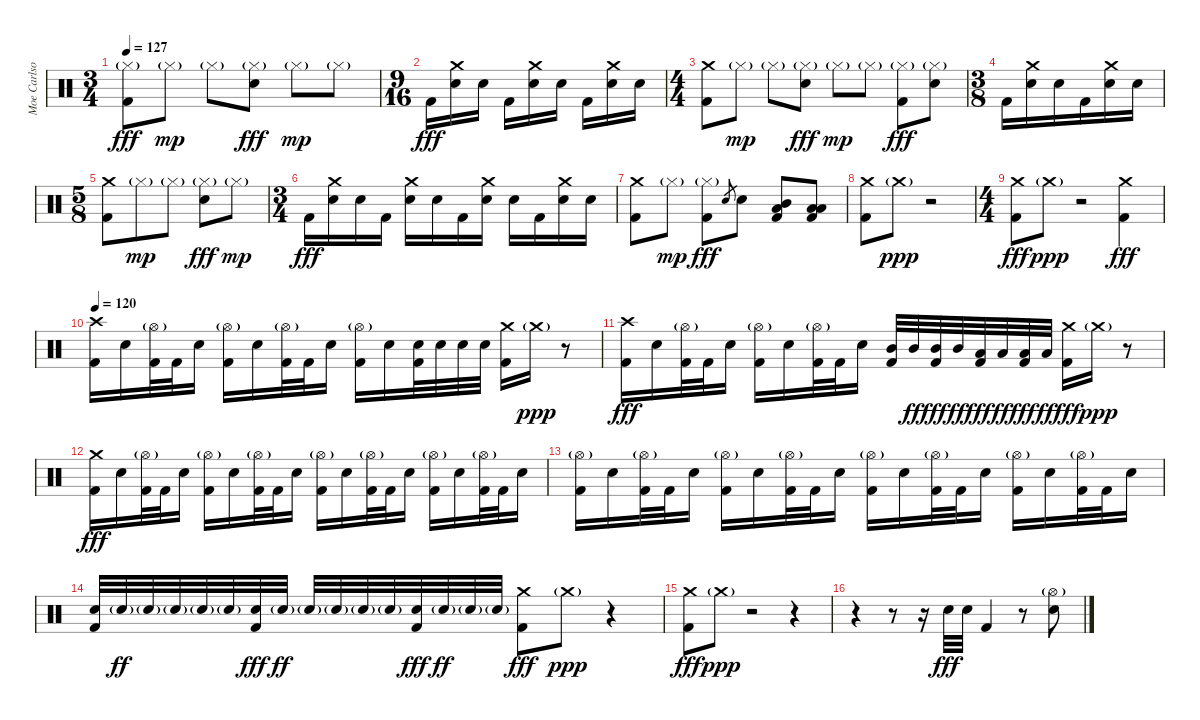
\track ("Moe Carlson" "Moe Carlso") {instrument percussion}
\staff {score}
\articulation defaults
\ts (3 4)
\tempo 127
\clef neutral
\ks c
("Hi-Hat (closed)"{g} "Kick (hit) 2").8{dy fff} "Hi-Hat (closed)"{g}.8{dy mp} "Hi-Hat (closed)"{g}.8 ("Hi-Hat (closed)"{g} "Electric Snare (hit)").8{dy fff} "Hi-Hat (closed)"{g}.8{dy mp} "Hi-Hat (closed)"{g}.8 |
\ts (9 16)
"Kick (hit) 2".16{dy fff} ("Crash medium (hit)" "Electric Snare (hit)").16 "Electric Snare (hit)".16 "Kick (hit) 2".16 ("Crash medium (hit)" "Electric Snare (hit)").16 "Electric Snare (hit)".16 "Kick (hit) 2".16 ("Crash medium (hit)" "Electric Snare (hit)").16 "Electric Snare (hit)".16 |
\ts (4 4)
("Crash medium (hit)" "Kick (hit) 2").8 "Hi-Hat (closed)"{g}.8{dy mp} "Hi-Hat (closed)"{g}.8 ("Hi-Hat (closed)"{g} "Electric Snare (hit)").8{dy fff} "Hi-Hat (closed)"{g}.8{dy mp} "Hi-Hat (closed)"{g}.8 ("Hi-Hat (closed)"{g} "Kick (hit) 2").8{dy fff} ("Hi-Hat (closed)"{g} "Electric Snare (hit)").8 |
\ts (3 8)
"Kick (hit) 2".16 ("Crash medium (hit)" "Electric Snare (hit)").16 "Electric Snare (hit)".16 "Kick (hit) 2".16 ("Crash medium (hit)" "Electric Snare (hit)").16 "Electric Snare (hit)".16 |
\ts (5 8)
("Crash medium (hit)" "Kick (hit) 2").8 "Hi-Hat (closed)"{g}.8{dy mp} "Hi-Hat (closed)"{g}.8 ("Hi-Hat (closed)"{g} "Electric Snare (hit)").8{dy fff} "Hi-Hat (closed)"{g}.8{dy mp} |
\ts (3 4)
"Kick (hit) 2".16{dy fff} ("Crash medium (hit)" "Electric Snare (hit)").16 "Electric Snare (hit)".16 "Kick (hit) 2".16 ("Crash medium (hit)" "Electric Snare (hit)").16 "Electric Snare (hit)".16 "Kick (hit) 2".16 ("Crash medium (hit)" "Electric Snare (hit)").16 "Electric Snare (hit)".16 "Kick (hit) 2".16 ("Crash medium (hit)" "Electric Snare (hit)").16 "Electric Snare (hit)".16 |
("Crash medium (hit)" "Kick (hit) 2").8 "Hi-Hat (closed)"{g}.8{dy mp} ("Hi-Hat (closed)"{g} "Kick (hit) 2").8{dy fff} "Electric Snare (hit)".8{gr} "Electric Snare (hit)".8 ("Mid Tom (hit)" "Low Floor Tom (hit)" "Kick (hit) 2").8 ("Low Tom (hit)" "Low Floor Tom (hit)" "Kick (hit) 2").8 |
("Crash medium (hit)" "Kick (hit) 2").8 "Crash medium (hit)"{g}.8{dy ppp} r.2 |
\ts (4 4)
("Crash medium (hit)" "Kick (hit) 2").8{dy fff} "Crash medium (hit)"{g}.8{dy ppp} r.2 ("Crash medium (hit)" "Kick (hit) 2").4{dy fff} |
\tempo 120
("Crash high (hit)" "Kick (hit) 2").16 "Electric Snare (hit)".16 ("Hi-Hat (open)"{g} "Kick (hit) 2").32 "Kick (hit) 2".32 "Electric Snare (hit)".16 ("Hi-Hat (open)"{g} "Kick (hit) 2").16 "Electric Snare (hit)".16 ("Hi-Hat (open)"{g} "Kick (hit) 2").32 "Kick (hit) 2".32 "Electric Snare (hit)".16 ("Hi-Hat (open)"{g} "Kick (hit) 2").16 "Electric Snare (hit)".16 ("Electric Snare (hit)" "Kick (hit) 2").32 "Electric Snare (hit)".32 "Electric Snare (hit)".32 "Electric Snare (hit)".32 ("Crash medium (hit)" "Kick (hit) 2").16 "Crash medium (hit)"{g}.16{dy ppp} r.8 |
("Crash high (hit)" "Kick (hit) 2").16{dy fff} "Electric Snare (hit)".16 ("Hi-Hat (open)"{g} "Kick (hit) 2").32 "Kick (hit) 2".32 "Electric Snare (hit)".16 ("Hi-Hat (open)"{g} "Kick (hit) 2").16 "Electric Snare (hit)".16 ("Hi-Hat (open)"{g} "Kick (hit) 2").32 "Kick (hit) 2".32 "Electric Snare (hit)".16 ("Mid Tom (hit)" "Kick (hit) 2").32 "Mid Tom (hit)".32{dy ff} ("Mid Tom (hit)" "Kick (hit) 2").32{dy fff} "Mid Tom (hit)".32{dy ff} ("Low Tom (hit)" "Kick (hit) 2").32{dy fff} "Low Tom (hit)".32{dy ff} ("Low Tom (hit)" "Kick (hit) 2").32{dy fff} "Low Tom (hit)".32{dy ff} ("Crash medium (hit)" "Kick (hit) 2").16{dy fff} "Crash medium (hit)"{g}.16{dy ppp} r.8 |
("Crash medium (hit)" "Kick (hit) 2").16{dy fff} "Electric Snare (hit)".16 ("Hi-Hat (open)"{g} "Kick (hit) 2").32 "Kick (hit) 2".32 "Electric Snare (hit)".16 ("Hi-Hat (open)"{g} "Kick (hit) 2").16 "Electric Snare (hit)".16 ("Hi-Hat (open)"{g} "Kick (hit) 2").32 "Kick (hit) 2".32 "Electric Snare (hit)".16 ("Hi-Hat (open)"{g} "Kick (hit) 2").16 "Electric Snare (hit)".16 ("Hi-Hat (open)"{g} "Kick (hit) 2").32 "Kick (hit) 2".32 "Electric Snare (hit)".16 ("Hi-Hat (open)"{g} "Kick (hit) 2").16 "Electric Snare (hit)".16 ("Hi-Hat (open)"{g} "Kick (hit) 2").32 "Kick (hit) 2".32 "Electric Snare (hit)".16 |
("Hi-Hat (open)"{g} "Kick (hit) 2").16 "Electric Snare (hit)".16 ("Hi-Hat (open)"{g} "Kick (hit) 2").32 "Kick (hit) 2".32 "Electric Snare (hit)".16 ("Hi-Hat (open)"{g} "Kick (hit) 2").16 "Electric Snare (hit)".16 ("Hi-Hat (open)"{g} "Kick (hit) 2").32 "Kick (hit) 2".32 "Electric Snare (hit)".16 ("Hi-Hat (open)"{g} "Kick (hit) 2").16 "Electric Snare (hit)".16 ("Hi-Hat (open)"{g} "Kick (hit) 2").32 "Kick (hit) 2".32 "Electric Snare (hit)".16 ("Hi-Hat (open)"{g} "Kick (hit) 2").16 "Electric Snare (hit)".16 ("Hi-Hat (open)"{g} "Kick (hit) 2").32 "Kick (hit) 2".32 "Electric Snare (hit)".16 |
("Electric Snare (hit)" "Kick (hit) 2").32 "Electric Snare (hit)"{g}.32{dy ff} "Electric Snare (hit)"{g}.32 "Electric Snare (hit)"{g}.32 "Electric Snare (hit)"{g}.32 "Electric Snare (hit)"{g}.32 ("Electric Snare (hit)" "Kick (hit) 2").32{dy fff} "Electric Snare (hit)"{g}.32{dy ff} "Electric Snare (hit)"{g}.32 "Electric Snare (hit)"{g}.32 "Electric Snare (hit)"{g}.32 "Electric Snare (hit)"{g}.32 ("Electric Snare (hit)" "Kick (hit) 2").32{dy fff} "Electric Snare (hit)"{g}.32{dy ff} "Electric Snare (hit)"{g}.32 "Electric Snare (hit)"{g}.32 ("Crash medium (hit)" "Kick (hit) 2").8{dy fff} "Crash medium (hit)"{g}.8{dy ppp} r.4 |
("Crash medium (hit)" "Kick (hit) 2").8{dy fff} "Crash medium (hit)"{g}.8{dy ppp} r.2 r.4 |
r.4 r.8 r.16 "Electric Snare (hit)".32{dy fff} "Electric Snare (hit)".32 "Kick (hit) 2".4 r.8 ("Hi-Hat (open)"{g} "Electric Snare (hit)").8
